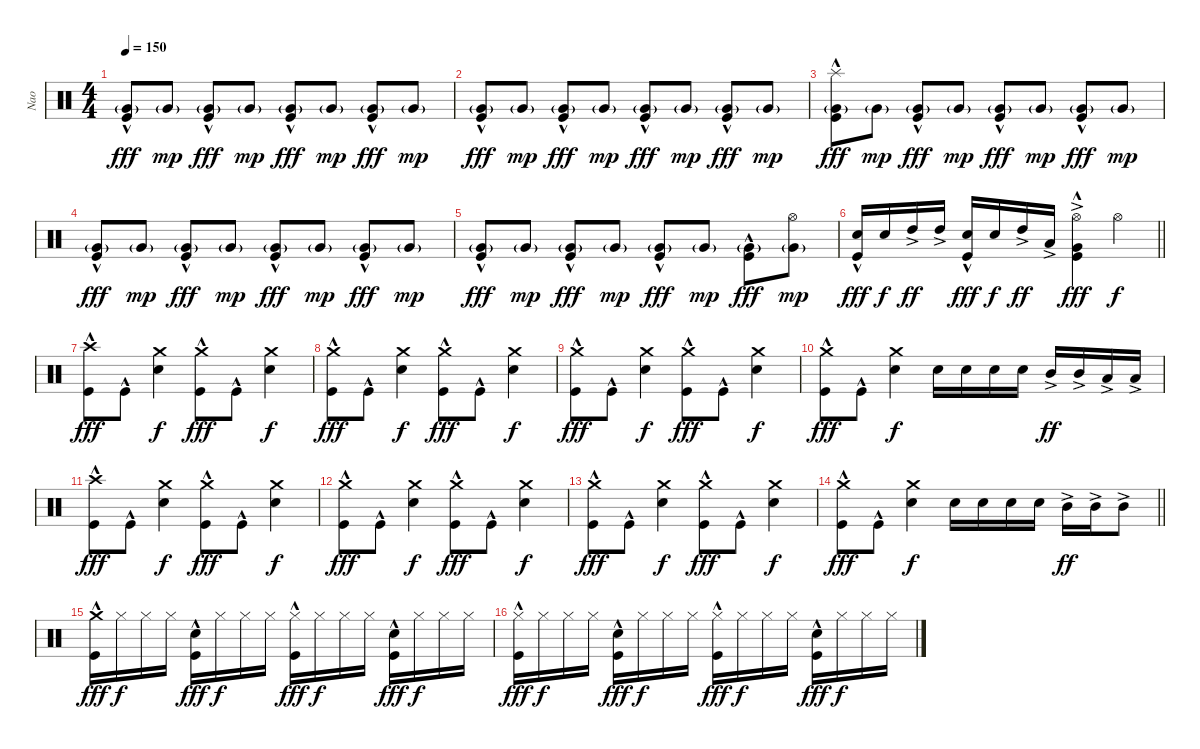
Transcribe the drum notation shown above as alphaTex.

\track ("Nao" "Nao") {instrument percussion}
\staff {score}
\articulation defaults
\ts (4 4)
\tempo 150
\clef neutral
\ks c
("Very Low Tom (hit)"{g} "Kick (hit)"{hac}).8{dy fff} "Very Low Tom (hit)"{g}.8{dy mp} ("Very Low Tom (hit)"{g} "Kick (hit)"{hac}).8{dy fff} "Very Low Tom (hit)"{g}.8{dy mp} ("Very Low Tom (hit)"{g} "Kick (hit)"{hac}).8{dy fff} "Very Low Tom (hit)"{g}.8{dy mp} ("Very Low Tom (hit)"{g} "Kick (hit)"{hac}).8{dy fff} "Very Low Tom (hit)"{g}.8{dy mp} |
("Very Low Tom (hit)"{g} "Kick (hit)"{hac}).8{dy fff} "Very Low Tom (hit)"{g}.8{dy mp} ("Very Low Tom (hit)"{g} "Kick (hit)"{hac}).8{dy fff} "Very Low Tom (hit)"{g}.8{dy mp} ("Very Low Tom (hit)"{g} "Kick (hit)"{hac}).8{dy fff} "Very Low Tom (hit)"{g}.8{dy mp} ("Very Low Tom (hit)"{g} "Kick (hit)"{hac}).8{dy fff} "Very Low Tom (hit)"{g}.8{dy mp} |
("Splash (hit)" "Very Low Tom (hit)"{g} "Kick (hit)"{hac}).8{dy fff} "Very Low Tom (hit)"{g}.8{dy mp} ("Very Low Tom (hit)"{g} "Kick (hit)"{hac}).8{dy fff} "Very Low Tom (hit)"{g}.8{dy mp} ("Very Low Tom (hit)"{g} "Kick (hit)"{hac}).8{dy fff} "Very Low Tom (hit)"{g}.8{dy mp} ("Very Low Tom (hit)"{g} "Kick (hit)"{hac}).8{dy fff} "Very Low Tom (hit)"{g}.8{dy mp} |
("Very Low Tom (hit)"{g} "Kick (hit)"{hac}).8{dy fff} "Very Low Tom (hit)"{g}.8{dy mp} ("Very Low Tom (hit)"{g} "Kick (hit)"{hac}).8{dy fff} "Very Low Tom (hit)"{g}.8{dy mp} ("Very Low Tom (hit)"{g} "Kick (hit)"{hac}).8{dy fff} "Very Low Tom (hit)"{g}.8{dy mp} ("Very Low Tom (hit)"{g} "Kick (hit)"{hac}).8{dy fff} "Very Low Tom (hit)"{g}.8{dy mp} |
("Very Low Tom (hit)"{g} "Kick (hit)"{hac}).8{dy fff} "Very Low Tom (hit)"{g}.8{dy mp} ("Very Low Tom (hit)"{g} "Kick (hit)"{hac}).8{dy fff} "Very Low Tom (hit)"{g}.8{dy mp} ("Very Low Tom (hit)"{g} "Kick (hit)"{hac}).8{dy fff} "Very Low Tom (hit)"{g}.8{dy mp} ("Very Low Tom (hit)"{g} "Kick (hit)"{hac}).8{dy fff} ("Hi-Hat (open)" "Very Low Tom (hit)"{g}).8{dy mp} |
\barLineRight lightlight
("Electric Snare (hit)" "Kick (hit)"{hac}).16{dy fff} "Electric Snare (hit)".16{dy f} "High Tom (hit)"{ac}.16{dy ff} "High Tom (hit)"{ac}.16 ("Electric Snare (hit)" "Kick (hit)"{hac}).16{dy fff} "Electric Snare (hit)".16{dy f} "High Tom (hit)"{ac}.16{dy ff} "Low Tom (hit)"{ac}.16 ("Hi-Hat (open)" "Very Low Tom (hit)"{ac} "Kick (hit)"{hac}).4{dy fff} "Hi-Hat (open)".4{dy f} |
\section ("" "")
("Crash high (hit)" "Kick (hit)"{hac}).8{dy fff} "Kick (hit)"{hac}.8 ("Crash medium (hit)" "Electric Snare (hit)").4{dy f} ("Crash medium (hit)" "Kick (hit)"{hac}).8{dy fff} "Kick (hit)"{hac}.8 ("Crash medium (hit)" "Electric Snare (hit)").4{dy f} |
("Crash medium (hit)" "Kick (hit)"{hac}).8{dy fff} "Kick (hit)"{hac}.8 ("Crash medium (hit)" "Electric Snare (hit)").4{dy f} ("Crash medium (hit)" "Kick (hit)"{hac}).8{dy fff} "Kick (hit)"{hac}.8 ("Crash medium (hit)" "Electric Snare (hit)").4{dy f} |
("Crash medium (hit)" "Kick (hit)"{hac}).8{dy fff} "Kick (hit)"{hac}.8 ("Crash medium (hit)" "Electric Snare (hit)").4{dy f} ("Crash medium (hit)" "Kick (hit)"{hac}).8{dy fff} "Kick (hit)"{hac}.8 ("Crash medium (hit)" "Electric Snare (hit)").4{dy f} |
("Crash medium (hit)" "Kick (hit)"{hac}).8{dy fff} "Kick (hit)"{hac}.8 ("Crash medium (hit)" "Electric Snare (hit)").4{dy f} "Electric Snare (hit)".16 "Electric Snare (hit)".16 "Electric Snare (hit)".16 "Electric Snare (hit)".16 "Mid Tom (hit)"{ac}.16{dy ff} "Mid Tom (hit)"{ac}.16 "Low Tom (hit)"{ac}.16 "Low Tom (hit)"{ac}.16 |
("Crash high (hit)" "Kick (hit)"{hac}).8{dy fff} "Kick (hit)"{hac}.8 ("Crash medium (hit)" "Electric Snare (hit)").4{dy f} ("Crash medium (hit)" "Kick (hit)"{hac}).8{dy fff} "Kick (hit)"{hac}.8 ("Crash medium (hit)" "Electric Snare (hit)").4{dy f} |
("Crash medium (hit)" "Kick (hit)"{hac}).8{dy fff} "Kick (hit)"{hac}.8 ("Crash medium (hit)" "Electric Snare (hit)").4{dy f} ("Crash medium (hit)" "Kick (hit)"{hac}).8{dy fff} "Kick (hit)"{hac}.8 ("Crash medium (hit)" "Electric Snare (hit)").4{dy f} |
("Crash medium (hit)" "Kick (hit)"{hac}).8{dy fff} "Kick (hit)"{hac}.8 ("Crash medium (hit)" "Electric Snare (hit)").4{dy f} ("Crash medium (hit)" "Kick (hit)"{hac}).8{dy fff} "Kick (hit)"{hac}.8 ("Crash medium (hit)" "Electric Snare (hit)").4{dy f} |
\barLineRight lightlight
("Crash medium (hit)" "Kick (hit)"{hac}).8{dy fff} "Kick (hit)"{hac}.8 ("Crash medium (hit)" "Electric Snare (hit)").4{dy f} "Electric Snare (hit)".16 "Electric Snare (hit)".16 "Electric Snare (hit)".16 "Electric Snare (hit)".16 "Mid Tom (hit)"{ac}.16{dy ff} "Mid Tom (hit)"{ac}.16 "Mid Tom (hit)"{ac}.8 |
\section ("" "")
("Crash medium (hit)" "Kick (hit)"{hac}).16{dy fff} "Hi-Hat (closed)".16{dy f} "Hi-Hat (closed)".16 "Hi-Hat (closed)".16 ("Electric Snare (hit)" "Kick (hit)"{hac}).16{dy fff} "Hi-Hat (closed)".16{dy f} "Hi-Hat (closed)".16 "Hi-Hat (closed)".16 ("Hi-Hat (closed)" "Kick (hit)"{hac}).16{dy fff} "Hi-Hat (closed)".16{dy f} "Hi-Hat (closed)".16 "Hi-Hat (closed)".16 ("Electric Snare (hit)" "Kick (hit)"{hac}).16{dy fff} "Hi-Hat (closed)".16{dy f} "Hi-Hat (closed)".16 "Hi-Hat (closed)".16 |
("Hi-Hat (closed)" "Kick (hit)"{hac}).16{dy fff} "Hi-Hat (closed)".16{dy f} "Hi-Hat (closed)".16 "Hi-Hat (closed)".16 ("Electric Snare (hit)" "Kick (hit)"{hac}).16{dy fff} "Hi-Hat (closed)".16{dy f} "Hi-Hat (closed)".16 "Hi-Hat (closed)".16 ("Hi-Hat (closed)" "Kick (hit)"{hac}).16{dy fff} "Hi-Hat (closed)".16{dy f} "Hi-Hat (closed)".16 "Hi-Hat (closed)".16 ("Electric Snare (hit)" "Kick (hit)"{hac}).16{dy fff} "Hi-Hat (closed)".16{dy f} "Hi-Hat (closed)".16 "Hi-Hat (closed)".16
